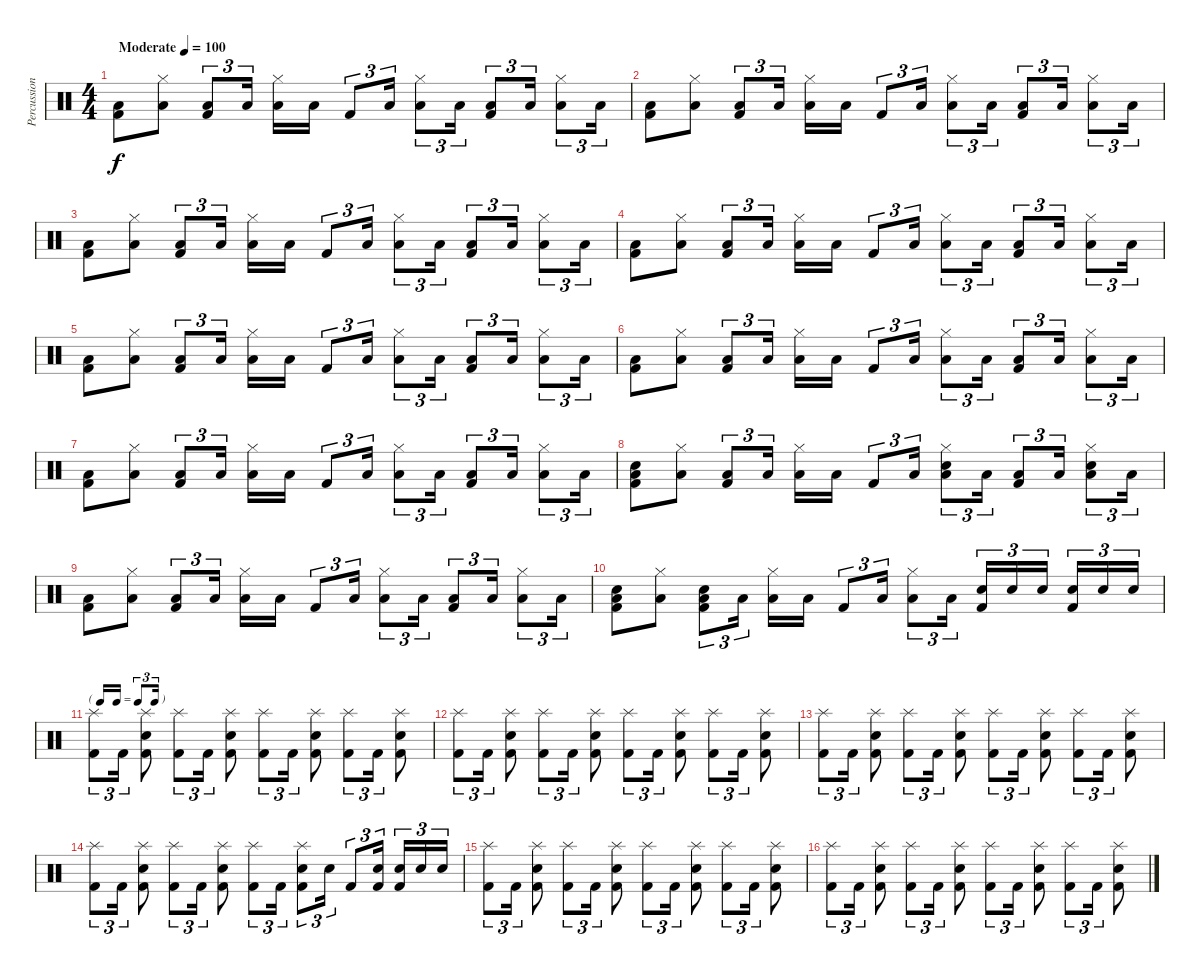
\track ("Percussion" "Percussion") {instrument percussion}
\staff {score}
\articulation defaults
\ts (4 4)
\tempo (100 "Moderate")
\clef neutral
\ks c
("Low Floor Tom (hit)" "Kick (hit) 2").8{dy f} ("Hi-Hat (closed)" "Low Floor Tom (hit)").8 ("Low Floor Tom (hit)" "Kick (hit) 2").8{tu (3 2)} "Low Floor Tom (hit)".16{tu (3 2) beam splitsecondary} ("Hi-Hat (closed)" "Low Floor Tom (hit)").16 "Low Tom (hit)".16 "Kick (hit) 2".8{tu (3 2)} "Low Tom (hit)".16{tu (3 2)} ("Hi-Hat (closed)" "Low Floor Tom (hit)").8{tu (3 2)} "Low Floor Tom (hit)".16{tu (3 2)} ("Low Floor Tom (hit)" "Kick (hit) 2").8{tu (3 2)} "Low Floor Tom (hit)".16{tu (3 2)} ("Hi-Hat (closed)" "Low Tom (hit)").8{tu (3 2)} "Low Floor Tom (hit)".16{tu (3 2)} |
("Low Floor Tom (hit)" "Kick (hit) 2").8 ("Hi-Hat (closed)" "Low Floor Tom (hit)").8 ("Low Floor Tom (hit)" "Kick (hit) 2").8{tu (3 2)} "Low Floor Tom (hit)".16{tu (3 2) beam splitsecondary} ("Hi-Hat (closed)" "Low Floor Tom (hit)").16 "Low Tom (hit)".16 "Kick (hit) 2".8{tu (3 2)} "Low Tom (hit)".16{tu (3 2)} ("Hi-Hat (closed)" "Low Floor Tom (hit)").8{tu (3 2)} "Low Floor Tom (hit)".16{tu (3 2)} ("Low Floor Tom (hit)" "Kick (hit) 2").8{tu (3 2)} "Low Floor Tom (hit)".16{tu (3 2)} ("Hi-Hat (closed)" "Low Tom (hit)").8{tu (3 2)} "Low Floor Tom (hit)".16{tu (3 2)} |
("Low Floor Tom (hit)" "Kick (hit) 2").8 ("Hi-Hat (closed)" "Low Floor Tom (hit)").8 ("Low Floor Tom (hit)" "Kick (hit) 2").8{tu (3 2)} "Low Floor Tom (hit)".16{tu (3 2) beam splitsecondary} ("Hi-Hat (closed)" "Low Floor Tom (hit)").16 "Low Tom (hit)".16 "Kick (hit) 2".8{tu (3 2)} "Low Tom (hit)".16{tu (3 2)} ("Hi-Hat (closed)" "Low Floor Tom (hit)").8{tu (3 2)} "Low Floor Tom (hit)".16{tu (3 2)} ("Low Floor Tom (hit)" "Kick (hit) 2").8{tu (3 2)} "Low Floor Tom (hit)".16{tu (3 2)} ("Hi-Hat (closed)" "Low Tom (hit)").8{tu (3 2)} "Low Floor Tom (hit)".16{tu (3 2)} |
("Low Floor Tom (hit)" "Kick (hit) 2").8 ("Hi-Hat (closed)" "Low Floor Tom (hit)").8 ("Low Floor Tom (hit)" "Kick (hit) 2").8{tu (3 2)} "Low Floor Tom (hit)".16{tu (3 2) beam splitsecondary} ("Hi-Hat (closed)" "Low Floor Tom (hit)").16 "Low Tom (hit)".16 "Kick (hit) 2".8{tu (3 2)} "Low Tom (hit)".16{tu (3 2)} ("Hi-Hat (closed)" "Low Floor Tom (hit)").8{tu (3 2)} "Low Floor Tom (hit)".16{tu (3 2)} ("Low Floor Tom (hit)" "Kick (hit) 2").8{tu (3 2)} "Low Floor Tom (hit)".16{tu (3 2)} ("Hi-Hat (closed)" "Low Tom (hit)").8{tu (3 2)} "Low Floor Tom (hit)".16{tu (3 2)} |
("Low Floor Tom (hit)" "Kick (hit) 2").8 ("Hi-Hat (closed)" "Low Floor Tom (hit)").8 ("Low Floor Tom (hit)" "Kick (hit) 2").8{tu (3 2)} "Low Floor Tom (hit)".16{tu (3 2) beam splitsecondary} ("Hi-Hat (closed)" "Low Floor Tom (hit)").16 "Low Tom (hit)".16 "Kick (hit) 2".8{tu (3 2)} "Low Tom (hit)".16{tu (3 2)} ("Hi-Hat (closed)" "Low Floor Tom (hit)").8{tu (3 2)} "Low Floor Tom (hit)".16{tu (3 2)} ("Low Floor Tom (hit)" "Kick (hit) 2").8{tu (3 2)} "Low Floor Tom (hit)".16{tu (3 2)} ("Hi-Hat (closed)" "Low Tom (hit)").8{tu (3 2)} "Low Floor Tom (hit)".16{tu (3 2)} |
("Low Floor Tom (hit)" "Kick (hit) 2").8 ("Hi-Hat (closed)" "Low Floor Tom (hit)").8 ("Low Floor Tom (hit)" "Kick (hit) 2").8{tu (3 2)} "Low Floor Tom (hit)".16{tu (3 2) beam splitsecondary} ("Hi-Hat (closed)" "Low Floor Tom (hit)").16 "Low Tom (hit)".16 "Kick (hit) 2".8{tu (3 2)} "Low Tom (hit)".16{tu (3 2)} ("Hi-Hat (closed)" "Low Floor Tom (hit)").8{tu (3 2)} "Low Floor Tom (hit)".16{tu (3 2)} ("Low Floor Tom (hit)" "Kick (hit) 2").8{tu (3 2)} "Low Floor Tom (hit)".16{tu (3 2)} ("Hi-Hat (closed)" "Low Tom (hit)").8{tu (3 2)} "Low Floor Tom (hit)".16{tu (3 2)} |
("Low Floor Tom (hit)" "Kick (hit) 2").8 ("Hi-Hat (closed)" "Low Floor Tom (hit)").8 ("Low Floor Tom (hit)" "Kick (hit) 2").8{tu (3 2)} "Low Floor Tom (hit)".16{tu (3 2) beam splitsecondary} ("Hi-Hat (closed)" "Low Floor Tom (hit)").16 "Low Tom (hit)".16 "Kick (hit) 2".8{tu (3 2)} "Low Tom (hit)".16{tu (3 2)} ("Hi-Hat (closed)" "Low Floor Tom (hit)").8{tu (3 2)} "Low Floor Tom (hit)".16{tu (3 2)} ("Low Floor Tom (hit)" "Kick (hit) 2").8{tu (3 2)} "Low Floor Tom (hit)".16{tu (3 2)} ("Hi-Hat (closed)" "Low Tom (hit)").8{tu (3 2)} "Low Floor Tom (hit)".16{tu (3 2)} |
("Electric Snare (hit)" "Low Floor Tom (hit)" "Kick (hit) 2").8 ("Hi-Hat (closed)" "Low Floor Tom (hit)").8 ("Low Floor Tom (hit)" "Kick (hit) 2").8{tu (3 2)} "Low Floor Tom (hit)".16{tu (3 2) beam splitsecondary} ("Hi-Hat (closed)" "Low Floor Tom (hit)").16 "Low Tom (hit)".16 "Kick (hit) 2".8{tu (3 2)} "Low Tom (hit)".16{tu (3 2)} ("Hi-Hat (closed)" "Electric Snare (hit)" "Low Floor Tom (hit)").8{tu (3 2)} "Low Floor Tom (hit)".16{tu (3 2)} ("Low Floor Tom (hit)" "Kick (hit) 2").8{tu (3 2)} "Low Floor Tom (hit)".16{tu (3 2)} ("Hi-Hat (closed)" "Electric Snare (hit)" "Low Tom (hit)").8{tu (3 2)} "Low Floor Tom (hit)".16{tu (3 2)} |
("Low Floor Tom (hit)" "Kick (hit) 2").8 ("Hi-Hat (closed)" "Low Floor Tom (hit)").8 ("Low Floor Tom (hit)" "Kick (hit) 2").8{tu (3 2)} "Low Floor Tom (hit)".16{tu (3 2) beam splitsecondary} ("Hi-Hat (closed)" "Low Floor Tom (hit)").16 "Low Tom (hit)".16 "Kick (hit) 2".8{tu (3 2)} "Low Tom (hit)".16{tu (3 2)} ("Hi-Hat (closed)" "Low Floor Tom (hit)").8{tu (3 2)} "Low Floor Tom (hit)".16{tu (3 2)} ("Low Floor Tom (hit)" "Kick (hit) 2").8{tu (3 2)} "Low Floor Tom (hit)".16{tu (3 2)} ("Hi-Hat (closed)" "Low Tom (hit)").8{tu (3 2)} "Low Floor Tom (hit)".16{tu (3 2)} |
("Electric Snare (hit)" "Low Floor Tom (hit)" "Kick (hit) 2").8 ("Hi-Hat (closed)" "Low Floor Tom (hit)").8 ("Electric Snare (hit)" "Low Floor Tom (hit)" "Kick (hit) 2").8{tu (3 2)} "Low Floor Tom (hit)".16{tu (3 2) beam splitsecondary} ("Hi-Hat (closed)" "Low Floor Tom (hit)").16 "Low Tom (hit)".16 "Kick (hit) 2".8{tu (3 2)} "Low Tom (hit)".16{tu (3 2)} ("Hi-Hat (closed)" "Low Floor Tom (hit)").8{tu (3 2)} "Low Floor Tom (hit)".16{tu (3 2)} ("Electric Snare (hit)" "Kick (hit) 2").16{tu (3 2)} "Electric Snare (hit)".16{tu (3 2)} "Electric Snare (hit)".16{tu (3 2) beam splitsecondary} ("Electric Snare (hit)" "Kick (hit) 2").16{tu (3 2)} "Electric Snare (hit)".16{tu (3 2)} "Electric Snare (hit)".16{tu (3 2)} |
\tf triplet16th
("Splash (hit)" "Kick (hit) 2").8{tu (3 2)} "Kick (hit) 2".16{tu (3 2)} ("Splash (hit)" "Electric Snare (hit)" "Kick (hit) 2").8 ("Splash (hit)" "Kick (hit) 2").8{tu (3 2)} "Kick (hit) 2".16{tu (3 2)} ("Splash (hit)" "Electric Snare (hit)" "Kick (hit) 2").8 ("Splash (hit)" "Kick (hit) 2").8{tu (3 2)} "Kick (hit) 2".16{tu (3 2)} ("Splash (hit)" "Electric Snare (hit)" "Kick (hit) 2").8 ("Splash (hit)" "Kick (hit) 2").8{tu (3 2)} "Kick (hit) 2".16{tu (3 2)} ("Splash (hit)" "Electric Snare (hit)" "Kick (hit) 2").8 |
("Splash (hit)" "Kick (hit) 2").8{tu (3 2)} "Kick (hit) 2".16{tu (3 2)} ("Splash (hit)" "Electric Snare (hit)" "Kick (hit) 2").8 ("Splash (hit)" "Kick (hit) 2").8{tu (3 2)} "Kick (hit) 2".16{tu (3 2)} ("Splash (hit)" "Electric Snare (hit)" "Kick (hit) 2").8 ("Splash (hit)" "Kick (hit) 2").8{tu (3 2)} "Kick (hit) 2".16{tu (3 2)} ("Splash (hit)" "Electric Snare (hit)" "Kick (hit) 2").8 ("Splash (hit)" "Kick (hit) 2").8{tu (3 2)} "Kick (hit) 2".16{tu (3 2)} ("Splash (hit)" "Electric Snare (hit)" "Kick (hit) 2").8 |
("Splash (hit)" "Kick (hit) 2").8{tu (3 2)} "Kick (hit) 2".16{tu (3 2)} ("Splash (hit)" "Electric Snare (hit)" "Kick (hit) 2").8 ("Splash (hit)" "Kick (hit) 2").8{tu (3 2)} "Kick (hit) 2".16{tu (3 2)} ("Splash (hit)" "Electric Snare (hit)" "Kick (hit) 2").8 ("Splash (hit)" "Kick (hit) 2").8{tu (3 2)} "Kick (hit) 2".16{tu (3 2)} ("Splash (hit)" "Electric Snare (hit)" "Kick (hit) 2").8 ("Splash (hit)" "Kick (hit) 2").8{tu (3 2)} "Kick (hit) 2".16{tu (3 2)} ("Splash (hit)" "Electric Snare (hit)" "Kick (hit) 2").8 |
("Splash (hit)" "Kick (hit) 2").8{tu (3 2)} "Kick (hit) 2".16{tu (3 2)} ("Splash (hit)" "Electric Snare (hit)" "Kick (hit) 2").8 ("Splash (hit)" "Kick (hit) 2").8{tu (3 2)} "Kick (hit) 2".16{tu (3 2)} ("Splash (hit)" "Electric Snare (hit)" "Kick (hit) 2").8 ("Splash (hit)" "Kick (hit) 2").8{tu (3 2)} "Kick (hit) 2".16{tu (3 2)} ("Splash (hit)" "Electric Snare (hit)" "Kick (hit) 2").8{tu (3 2)} "Electric Snare (hit)".16{tu (3 2)} "Kick (hit) 2".8{tu (3 2)} ("Electric Snare (hit)" "Kick (hit) 2").16{tu (3 2) beam splitsecondary} ("Electric Snare (hit)" "Kick (hit) 2").16{tu (3 2)} "Electric Snare (hit)".16{tu (3 2)} "Electric Snare (hit)".16{tu (3 2)} |
("Splash (hit)" "Kick (hit) 2").8{tu (3 2)} "Kick (hit) 2".16{tu (3 2)} ("Splash (hit)" "Electric Snare (hit)" "Kick (hit) 2").8 ("Splash (hit)" "Kick (hit) 2").8{tu (3 2)} "Kick (hit) 2".16{tu (3 2)} ("Splash (hit)" "Electric Snare (hit)" "Kick (hit) 2").8 ("Splash (hit)" "Kick (hit) 2").8{tu (3 2)} "Kick (hit) 2".16{tu (3 2)} ("Splash (hit)" "Electric Snare (hit)" "Kick (hit) 2").8 ("Splash (hit)" "Kick (hit) 2").8{tu (3 2)} "Kick (hit) 2".16{tu (3 2)} ("Splash (hit)" "Electric Snare (hit)" "Kick (hit) 2").8 |
("Splash (hit)" "Kick (hit) 2").8{tu (3 2)} "Kick (hit) 2".16{tu (3 2)} ("Splash (hit)" "Electric Snare (hit)" "Kick (hit) 2").8 ("Splash (hit)" "Kick (hit) 2").8{tu (3 2)} "Kick (hit) 2".16{tu (3 2)} ("Splash (hit)" "Electric Snare (hit)" "Kick (hit) 2").8 ("Splash (hit)" "Kick (hit) 2").8{tu (3 2)} "Kick (hit) 2".16{tu (3 2)} ("Splash (hit)" "Electric Snare (hit)" "Kick (hit) 2").8 ("Splash (hit)" "Kick (hit) 2").8{tu (3 2)} "Kick (hit) 2".16{tu (3 2)} ("Splash (hit)" "Electric Snare (hit)" "Kick (hit) 2").8
